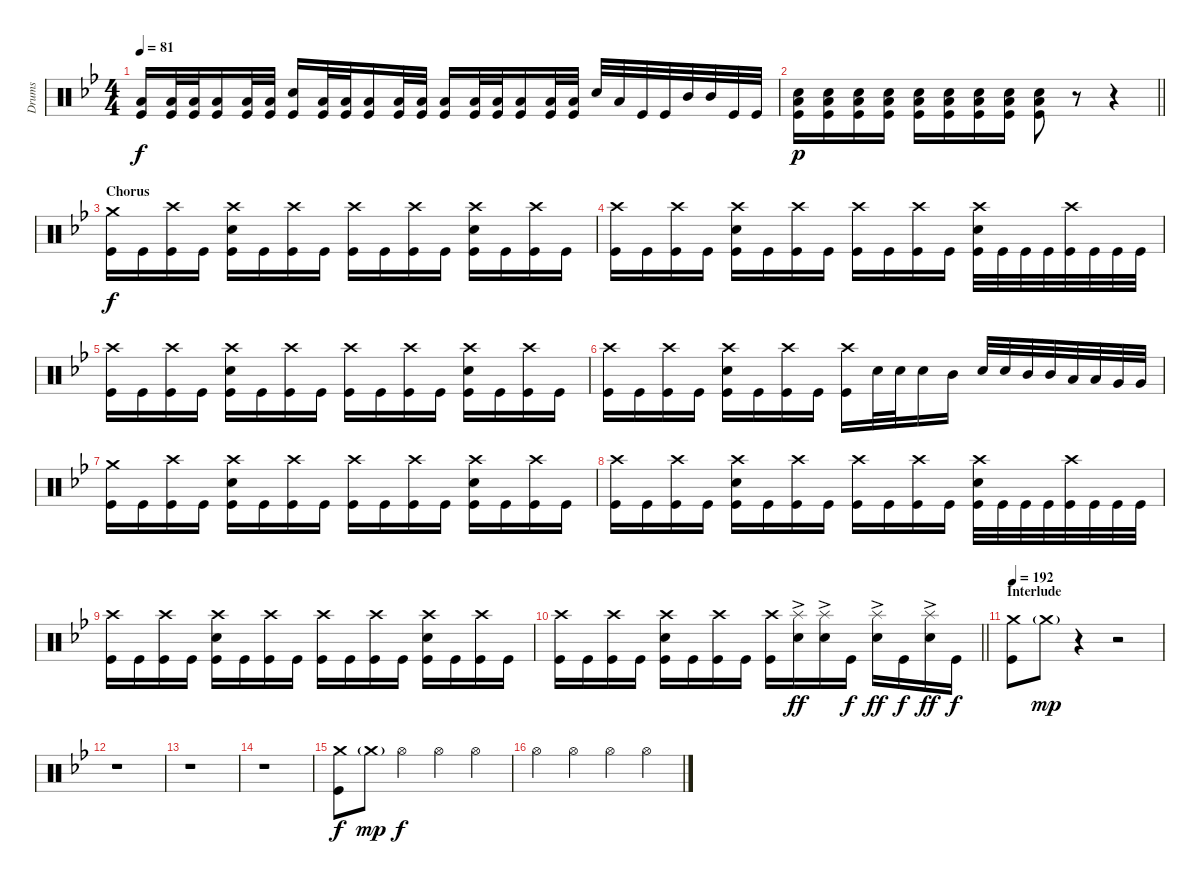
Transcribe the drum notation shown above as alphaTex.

\track ("Drums" "Drums") {instrument percussion}
\staff {score}
\articulation defaults
\ts (4 4)
\tempo 81
\clef neutral
\ks gminor
("Low Tom (hit)" "Kick (hit)").16{dy f} ("Low Tom (hit)" "Kick (hit)").32 ("Low Tom (hit)" "Kick (hit)").32 ("Low Tom (hit)" "Kick (hit)").16 ("Low Tom (hit)" "Kick (hit)").32 ("Low Tom (hit)" "Kick (hit)").32 ("Electric Snare (hit)" "Kick (hit)").16 ("Low Tom (hit)" "Kick (hit)").32 ("Low Tom (hit)" "Kick (hit)").32 ("Low Tom (hit)" "Kick (hit)").16 ("Low Tom (hit)" "Kick (hit)").32 ("Low Tom (hit)" "Kick (hit)").32 ("Low Tom (hit)" "Kick (hit)").16 ("Low Tom (hit)" "Kick (hit)").32 ("Low Tom (hit)" "Kick (hit)").32 ("Low Tom (hit)" "Kick (hit)").16 ("Low Tom (hit)" "Kick (hit)").32 ("Low Tom (hit)" "Kick (hit)").32 "Electric Snare (hit)".32 "Low Tom (hit)".32 "Kick (hit)".32 "Kick (hit)".32 "Mid Tom (hit)".32 "Mid Tom (hit)".32 "Kick (hit)".32 "Kick (hit)".32 |
\barLineRight lightlight
("Low Tom (hit)" "Electric Snare (hit)" "Kick (hit)").16{dy p} ("Low Tom (hit)" "Electric Snare (hit)" "Kick (hit)").16 ("Low Tom (hit)" "Electric Snare (hit)" "Kick (hit)").16 ("Low Tom (hit)" "Electric Snare (hit)" "Kick (hit)").16 ("Low Tom (hit)" "Electric Snare (hit)" "Kick (hit)").16 ("Low Tom (hit)" "Electric Snare (hit)" "Kick (hit)").16 ("Low Tom (hit)" "Electric Snare (hit)" "Kick (hit)").16 ("Low Tom (hit)" "Electric Snare (hit)" "Kick (hit)").16 ("Low Tom (hit)" "Electric Snare (hit)" "Kick (hit)").8 r.8 r.4 |
\section ("" "Chorus")
("Crash medium (hit)" "Kick (hit)").16{dy f} "Kick (hit)".16 ("Crash high (hit)" "Kick (hit)").16 "Kick (hit)".16 ("Crash high (hit)" "Electric Snare (hit)" "Kick (hit)").16 "Kick (hit)".16 ("Crash high (hit)" "Kick (hit)").16 "Kick (hit)".16 ("Crash high (hit)" "Kick (hit)").16 "Kick (hit)".16 ("Crash high (hit)" "Kick (hit)").16 "Kick (hit)".16 ("Crash high (hit)" "Electric Snare (hit)" "Kick (hit)").16 "Kick (hit)".16 ("Crash high (hit)" "Kick (hit)").16 "Kick (hit)".16 |
("Crash high (hit)" "Kick (hit)").16 "Kick (hit)".16 ("Crash high (hit)" "Kick (hit)").16 "Kick (hit)".16 ("Crash high (hit)" "Electric Snare (hit)" "Kick (hit)").16 "Kick (hit)".16 ("Crash high (hit)" "Kick (hit)").16 "Kick (hit)".16 ("Crash high (hit)" "Kick (hit)").16 "Kick (hit)".16 ("Crash high (hit)" "Kick (hit)").16 "Kick (hit)".16 ("Crash high (hit)" "Electric Snare (hit)" "Kick (hit)").32 "Kick (hit)".32 "Kick (hit)".32 "Kick (hit)".32 ("Crash high (hit)" "Kick (hit)").32 "Kick (hit)".32 "Kick (hit)".32 "Kick (hit)".32 |
("Crash high (hit)" "Kick (hit)").16 "Kick (hit)".16 ("Crash high (hit)" "Kick (hit)").16 "Kick (hit)".16 ("Crash high (hit)" "Electric Snare (hit)" "Kick (hit)").16 "Kick (hit)".16 ("Crash high (hit)" "Kick (hit)").16 "Kick (hit)".16 ("Crash high (hit)" "Kick (hit)").16 "Kick (hit)".16 ("Crash high (hit)" "Kick (hit)").16 "Kick (hit)".16 ("Crash high (hit)" "Electric Snare (hit)" "Kick (hit)").16 "Kick (hit)".16 ("Crash high (hit)" "Kick (hit)").16 "Kick (hit)".16 |
("Crash high (hit)" "Kick (hit)").16 "Kick (hit)".16 ("Crash high (hit)" "Kick (hit)").16 "Kick (hit)".16 ("Crash high (hit)" "Electric Snare (hit)" "Kick (hit)").16 "Kick (hit)".16 ("Crash high (hit)" "Kick (hit)").16 "Kick (hit)".16 ("Crash high (hit)" "Kick (hit)").16 "Electric Snare (hit)".32 "Electric Snare (hit)".32 "Electric Snare (hit)".16 "Mid Tom (hit)".16 "Electric Snare (hit)".32 "Electric Snare (hit)".32 "Mid Tom (hit)".32 "Mid Tom (hit)".32 "Low Tom (hit)".32 "Low Tom (hit)".32 "Very Low Tom (hit)".32 "Very Low Tom (hit)".32 |
("Crash medium (hit)" "Kick (hit)").16 "Kick (hit)".16 ("Crash high (hit)" "Kick (hit)").16 "Kick (hit)".16 ("Crash high (hit)" "Electric Snare (hit)" "Kick (hit)").16 "Kick (hit)".16 ("Crash high (hit)" "Kick (hit)").16 "Kick (hit)".16 ("Crash high (hit)" "Kick (hit)").16 "Kick (hit)".16 ("Crash high (hit)" "Kick (hit)").16 "Kick (hit)".16 ("Crash high (hit)" "Electric Snare (hit)" "Kick (hit)").16 "Kick (hit)".16 ("Crash high (hit)" "Kick (hit)").16 "Kick (hit)".16 |
("Crash high (hit)" "Kick (hit)").16 "Kick (hit)".16 ("Crash high (hit)" "Kick (hit)").16 "Kick (hit)".16 ("Crash high (hit)" "Electric Snare (hit)" "Kick (hit)").16 "Kick (hit)".16 ("Crash high (hit)" "Kick (hit)").16 "Kick (hit)".16 ("Crash high (hit)" "Kick (hit)").16 "Kick (hit)".16 ("Crash high (hit)" "Kick (hit)").16 "Kick (hit)".16 ("Crash high (hit)" "Electric Snare (hit)" "Kick (hit)").32 "Kick (hit)".32 "Kick (hit)".32 "Kick (hit)".32 ("Crash high (hit)" "Kick (hit)").32 "Kick (hit)".32 "Kick (hit)".32 "Kick (hit)".32 |
("Crash high (hit)" "Kick (hit)").16 "Kick (hit)".16 ("Crash high (hit)" "Kick (hit)").16 "Kick (hit)".16 ("Crash high (hit)" "Electric Snare (hit)" "Kick (hit)").16 "Kick (hit)".16 ("Crash high (hit)" "Kick (hit)").16 "Kick (hit)".16 ("Crash high (hit)" "Kick (hit)").16 "Kick (hit)".16 ("Crash high (hit)" "Kick (hit)").16 "Kick (hit)".16 ("Crash high (hit)" "Electric Snare (hit)" "Kick (hit)").16 "Kick (hit)".16 ("Crash high (hit)" "Kick (hit)").16 "Kick (hit)".16 |
\barLineRight lightlight
("Crash high (hit)" "Kick (hit)").16 "Kick (hit)".16 ("Crash high (hit)" "Kick (hit)").16 "Kick (hit)".16 ("Crash high (hit)" "Electric Snare (hit)" "Kick (hit)").16 "Kick (hit)".16 ("Crash high (hit)" "Kick (hit)").16 "Kick (hit)".16 ("Crash high (hit)" "Kick (hit)").16 ("Splash (hit)"{ac} "Electric Snare (hit)"{ac}).16{dy ff} ("Splash (hit)"{ac} "Electric Snare (hit)"{ac}).16 "Kick (hit)".16{dy f} ("Splash (hit)"{ac} "Electric Snare (hit)"{ac}).16{dy ff} "Kick (hit)".16{dy f} ("Splash (hit)"{ac} "Electric Snare (hit)"{ac}).16{dy ff} "Kick (hit)".16{dy f} |
\section ("" "Interlude")
\tempo 192
("Crash medium (hit)" "Kick (hit)").8 "Crash medium (hit)"{g}.8{dy mp} r.4 r.2 |
r.1 |
r.1 |
r.1 |
("Crash medium (hit)" "Kick (hit)").8{dy f} "Crash medium (hit)"{g}.8{dy mp} "Hi-Hat (open)".4{dy f} "Hi-Hat (open)".4 "Hi-Hat (open)".4 |
"Hi-Hat (open)".4 "Hi-Hat (open)".4 "Hi-Hat (open)".4 "Hi-Hat (open)".4
